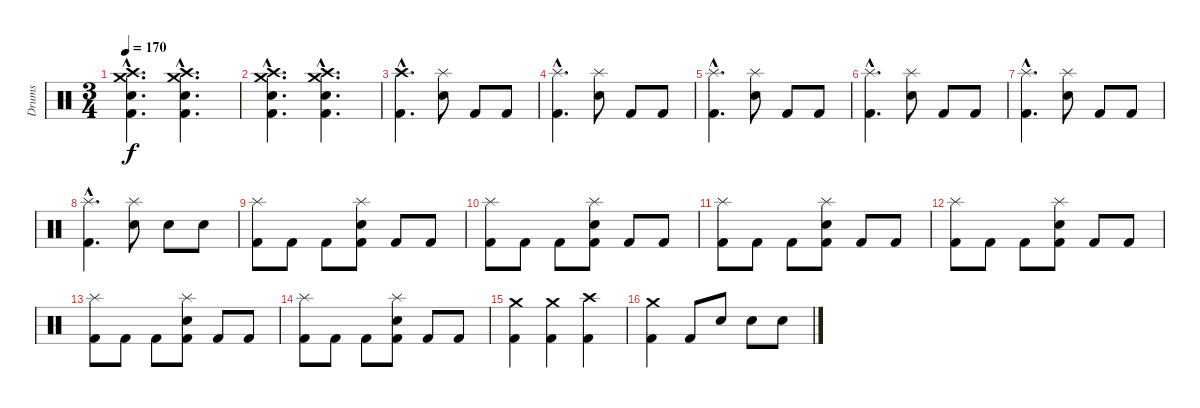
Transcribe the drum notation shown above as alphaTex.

\track ("Drums" "Drums") {instrument percussion}
\staff {score}
\articulation defaults
\ts (3 4)
\tempo 170
\clef neutral
\ks c
("Crash high (hit)"{hac} "Crash medium (hit)"{hac} "Electric Snare (hit)"{hac} "Kick (hit) 2"{hac}).4{d dy f} ("Crash high (hit)"{hac} "Crash medium (hit)"{hac} "Electric Snare (hit)"{hac} "Kick (hit) 2"{hac}).4{d} |
("Crash high (hit)"{hac} "Crash medium (hit)"{hac} "Electric Snare (hit)"{hac} "Kick (hit) 2"{hac}).4{d} ("Crash high (hit)"{hac} "Crash medium (hit)"{hac} "Electric Snare (hit)"{hac} "Kick (hit) 2"{hac}).4{d} |
("Crash high (hit)"{hac} "Kick (hit) 2"{hac}).4{d} ("Splash (hit)" "Electric Snare (hit)").8 "Kick (hit) 2".8 "Kick (hit) 2".8 |
("Splash (hit)"{hac} "Kick (hit) 2"{hac}).4{d} ("Splash (hit)" "Electric Snare (hit)").8 "Kick (hit) 2".8 "Kick (hit) 2".8 |
("Splash (hit)"{hac} "Kick (hit) 2"{hac}).4{d} ("Splash (hit)" "Electric Snare (hit)").8 "Kick (hit) 2".8 "Kick (hit) 2".8 |
("Splash (hit)"{hac} "Kick (hit) 2"{hac}).4{d} ("Splash (hit)" "Electric Snare (hit)").8 "Kick (hit) 2".8 "Kick (hit) 2".8 |
("Splash (hit)"{hac} "Kick (hit) 2"{hac}).4{d} ("Splash (hit)" "Electric Snare (hit)").8 "Kick (hit) 2".8 "Kick (hit) 2".8 |
("Splash (hit)"{hac} "Kick (hit) 2"{hac}).4{d} ("Splash (hit)" "Electric Snare (hit)").8 "Electric Snare (hit)".8 "Electric Snare (hit)".8 |
("Splash (hit)" "Kick (hit) 2").8 "Kick (hit) 2".8 "Kick (hit) 2".8 ("Splash (hit)" "Electric Snare (hit)" "Kick (hit) 2").8 "Kick (hit) 2".8 "Kick (hit) 2".8 |
("Splash (hit)" "Kick (hit) 2").8 "Kick (hit) 2".8 "Kick (hit) 2".8 ("Splash (hit)" "Electric Snare (hit)" "Kick (hit) 2").8 "Kick (hit) 2".8 "Kick (hit) 2".8 |
("Splash (hit)" "Kick (hit) 2").8 "Kick (hit) 2".8 "Kick (hit) 2".8 ("Splash (hit)" "Electric Snare (hit)" "Kick (hit) 2").8 "Kick (hit) 2".8 "Kick (hit) 2".8 |
("Splash (hit)" "Kick (hit) 2").8 "Kick (hit) 2".8 "Kick (hit) 2".8 ("Splash (hit)" "Electric Snare (hit)" "Kick (hit) 2").8 "Kick (hit) 2".8 "Kick (hit) 2".8 |
("Splash (hit)" "Kick (hit) 2").8 "Kick (hit) 2".8 "Kick (hit) 2".8 ("Splash (hit)" "Electric Snare (hit)" "Kick (hit) 2").8 "Kick (hit) 2".8 "Kick (hit) 2".8 |
("Splash (hit)" "Kick (hit) 2").8 "Kick (hit) 2".8 "Kick (hit) 2".8 ("Splash (hit)" "Electric Snare (hit)" "Kick (hit) 2").8 "Kick (hit) 2".8 "Kick (hit) 2".8 |
("Crash medium (hit)" "Kick (hit) 2").4 ("Crash medium (hit)" "Kick (hit) 2").4 ("Crash high (hit)" "Kick (hit) 2").4 |
("Crash medium (hit)" "Kick (hit) 2").4 "Kick (hit) 2".8 "Electric Snare (hit)".8 "Electric Snare (hit)".8 "Electric Snare (hit)".8
